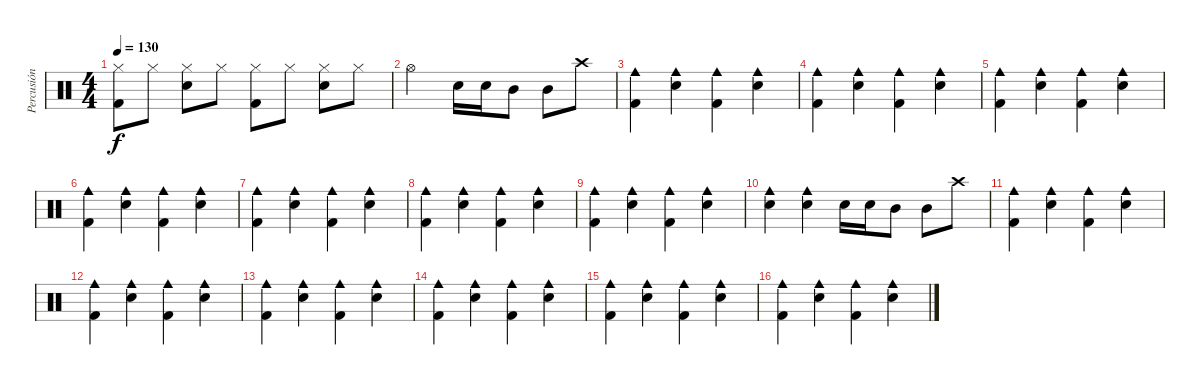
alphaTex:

\track ("Percusión" "Percusión") {instrument percussion}
\staff {score}
\articulation defaults
\ts (4 4)
\tempo 130
\clef neutral
\ks c
("Hi-Hat (closed)" "Kick (hit) 2").8{dy f} "Hi-Hat (closed)".8 ("Hi-Hat (closed)" "Snare (hit) 2").8 "Hi-Hat (closed)".8 ("Hi-Hat (closed)" "Kick (hit) 2").8 "Hi-Hat (closed)".8 ("Hi-Hat (closed)" "Snare (hit) 2").8 "Hi-Hat (closed)".8 |
"Hi-Hat (open)".2 "Snare (hit) 2".16 "Snare (hit) 2".16 "Mid Tom (hit)".8 "Mid Tom (hit)".8 "Crash high (hit)".8 |
("Cowbell medium (hit)" "Kick (hit) 2").4 ("Cowbell medium (hit)" "Snare (hit) 2").4 ("Cowbell medium (hit)" "Kick (hit) 2").4 ("Cowbell medium (hit)" "Snare (hit) 2").4 |
("Cowbell medium (hit)" "Kick (hit) 2").4 ("Cowbell medium (hit)" "Snare (hit) 2").4 ("Cowbell medium (hit)" "Kick (hit) 2").4 ("Cowbell medium (hit)" "Snare (hit) 2").4 |
("Cowbell medium (hit)" "Kick (hit) 2").4 ("Cowbell medium (hit)" "Snare (hit) 2").4 ("Cowbell medium (hit)" "Kick (hit) 2").4 ("Cowbell medium (hit)" "Snare (hit) 2").4 |
("Cowbell medium (hit)" "Kick (hit) 2").4 ("Cowbell medium (hit)" "Snare (hit) 2").4 ("Cowbell medium (hit)" "Kick (hit) 2").4 ("Cowbell medium (hit)" "Snare (hit) 2").4 |
("Cowbell medium (hit)" "Kick (hit) 2").4 ("Cowbell medium (hit)" "Snare (hit) 2").4 ("Cowbell medium (hit)" "Kick (hit) 2").4 ("Cowbell medium (hit)" "Snare (hit) 2").4 |
("Cowbell medium (hit)" "Kick (hit) 2").4 ("Cowbell medium (hit)" "Snare (hit) 2").4 ("Cowbell medium (hit)" "Kick (hit) 2").4 ("Cowbell medium (hit)" "Snare (hit) 2").4 |
("Cowbell medium (hit)" "Kick (hit) 2").4 ("Cowbell medium (hit)" "Snare (hit) 2").4 ("Cowbell medium (hit)" "Kick (hit) 2").4 ("Cowbell medium (hit)" "Snare (hit) 2").4 |
("Cowbell medium (hit)" "Snare (hit) 2").4 ("Cowbell medium (hit)" "Snare (hit) 2").4 "Snare (hit) 2".16 "Snare (hit) 2".16 "Mid Tom (hit)".8 "Mid Tom (hit)".8 "Crash high (hit)".8 |
("Cowbell medium (hit)" "Kick (hit) 2").4 ("Cowbell medium (hit)" "Snare (hit) 2").4 ("Cowbell medium (hit)" "Kick (hit) 2").4 ("Cowbell medium (hit)" "Snare (hit) 2").4 |
("Cowbell medium (hit)" "Kick (hit) 2").4 ("Cowbell medium (hit)" "Snare (hit) 2").4 ("Cowbell medium (hit)" "Kick (hit) 2").4 ("Cowbell medium (hit)" "Snare (hit) 2").4 |
("Cowbell medium (hit)" "Kick (hit) 2").4 ("Cowbell medium (hit)" "Snare (hit) 2").4 ("Cowbell medium (hit)" "Kick (hit) 2").4 ("Cowbell medium (hit)" "Snare (hit) 2").4 |
("Cowbell medium (hit)" "Kick (hit) 2").4 ("Cowbell medium (hit)" "Snare (hit) 2").4 ("Cowbell medium (hit)" "Kick (hit) 2").4 ("Cowbell medium (hit)" "Snare (hit) 2").4 |
("Cowbell medium (hit)" "Kick (hit) 2").4 ("Cowbell medium (hit)" "Snare (hit) 2").4 ("Cowbell medium (hit)" "Kick (hit) 2").4 ("Cowbell medium (hit)" "Snare (hit) 2").4 |
("Cowbell medium (hit)" "Kick (hit) 2").4 ("Cowbell medium (hit)" "Snare (hit) 2").4 ("Cowbell medium (hit)" "Kick (hit) 2").4 ("Cowbell medium (hit)" "Snare (hit) 2").4
